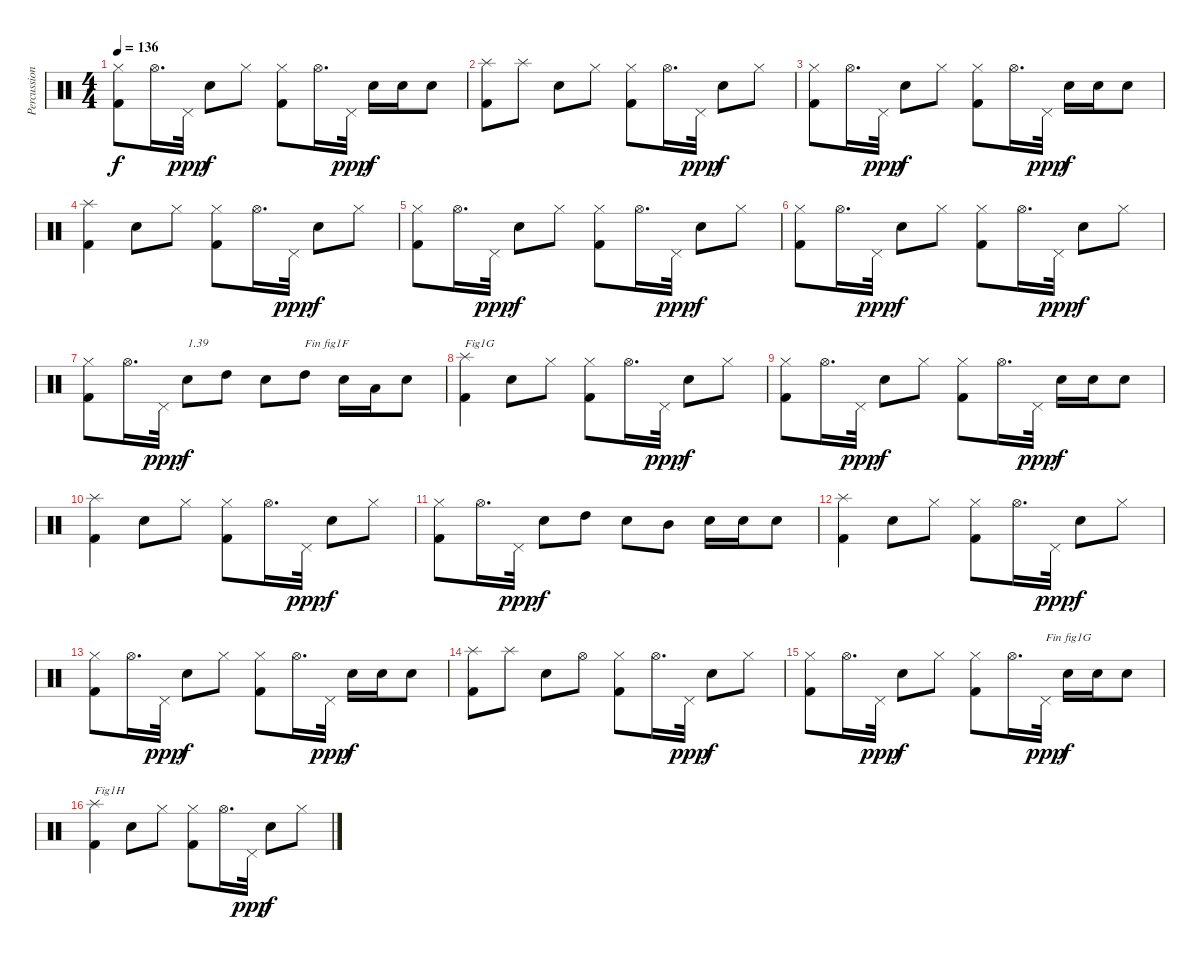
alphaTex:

\track ("Percussions" "Percussion") {instrument percussion}
\staff {score}
\articulation defaults
\ts (4 4)
\tempo 136
\clef neutral
\ks c
("Kick (hit) 2" "Hi-Hat (closed)").8{dy f} "Hi-Hat (open)".16{d} "Pedal Hi-Hat (hit)".32{dy ppp} "Electric Snare (hit)".8{dy f} "Hi-Hat (closed)".8 ("Kick (hit) 2" "Hi-Hat (closed)").8 "Hi-Hat (open)".16{d} "Pedal Hi-Hat (hit)".32{dy ppp} "Electric Snare (hit)".16{dy f} "Electric Snare (hit)".16 "Electric Snare (hit)".8 |
("Kick (hit) 2" "Splash (hit)").8 "Splash (hit)".8 "Electric Snare (hit)".8 "Hi-Hat (closed)".8 ("Kick (hit) 2" "Hi-Hat (closed)").8 "Hi-Hat (open)".16{d} "Pedal Hi-Hat (hit)".32{dy ppp} "Electric Snare (hit)".8{dy f} "Hi-Hat (closed)".8 |
("Kick (hit) 2" "Hi-Hat (closed)").8 "Hi-Hat (open)".16{d} "Pedal Hi-Hat (hit)".32{dy ppp} "Electric Snare (hit)".8{dy f} "Hi-Hat (closed)".8 ("Kick (hit) 2" "Hi-Hat (closed)").8 "Hi-Hat (open)".16{d} "Pedal Hi-Hat (hit)".32{dy ppp} "Electric Snare (hit)".16{dy f} "Electric Snare (hit)".16 "Electric Snare (hit)".8 |
("Kick (hit) 2" "Splash (hit)").4 "Electric Snare (hit)".8 "Hi-Hat (closed)".8 ("Kick (hit) 2" "Hi-Hat (closed)").8 "Hi-Hat (open)".16{d} "Pedal Hi-Hat (hit)".32{dy ppp} "Electric Snare (hit)".8{dy f} "Hi-Hat (closed)".8 |
("Kick (hit) 2" "Hi-Hat (closed)").8 "Hi-Hat (open)".16{d} "Pedal Hi-Hat (hit)".32{dy ppp} "Electric Snare (hit)".8{dy f} "Hi-Hat (closed)".8 ("Kick (hit) 2" "Hi-Hat (closed)").8 "Hi-Hat (open)".16{d} "Pedal Hi-Hat (hit)".32{dy ppp} "Electric Snare (hit)".8{dy f} "Hi-Hat (closed)".8 |
("Kick (hit) 2" "Hi-Hat (closed)").8 "Hi-Hat (open)".16{d} "Pedal Hi-Hat (hit)".32{dy ppp} "Electric Snare (hit)".8{dy f} "Hi-Hat (closed)".8 ("Kick (hit) 2" "Hi-Hat (closed)").8 "Hi-Hat (open)".16{d} "Pedal Hi-Hat (hit)".32{dy ppp} "Electric Snare (hit)".8{dy f} "Hi-Hat (closed)".8 |
("Kick (hit) 2" "Hi-Hat (closed)").8 "Hi-Hat (open)".16{d} "Pedal Hi-Hat (hit)".32{dy ppp} "Electric Snare (hit)".8{txt "1.39" dy f} "High Tom (hit)".8 "Electric Snare (hit)".8 "High Tom (hit)".8{txt "Fin fig1F"} "Electric Snare (hit)".16 "Low Tom (hit)".16 "Electric Snare (hit)".8 |
("Kick (hit) 2" "Splash (hit)").4{txt "Fig1G"} "Electric Snare (hit)".8 "Hi-Hat (closed)".8 ("Kick (hit) 2" "Hi-Hat (closed)").8 "Hi-Hat (open)".16{d} "Pedal Hi-Hat (hit)".32{dy ppp} "Electric Snare (hit)".8{dy f} "Hi-Hat (closed)".8 |
("Kick (hit) 2" "Hi-Hat (closed)").8 "Hi-Hat (open)".16{d} "Pedal Hi-Hat (hit)".32{dy ppp} "Electric Snare (hit)".8{dy f} "Hi-Hat (closed)".8 ("Kick (hit) 2" "Hi-Hat (closed)").8 "Hi-Hat (open)".16{d} "Pedal Hi-Hat (hit)".32{dy ppp} "Electric Snare (hit)".16{dy f} "Electric Snare (hit)".16 "Electric Snare (hit)".8 |
("Kick (hit) 2" "Splash (hit)").4 "Electric Snare (hit)".8 "Hi-Hat (closed)".8 ("Kick (hit) 2" "Hi-Hat (closed)").8 "Hi-Hat (open)".16{d} "Pedal Hi-Hat (hit)".32{dy ppp} "Electric Snare (hit)".8{dy f} "Hi-Hat (closed)".8 |
("Kick (hit) 2" "Hi-Hat (closed)").8 "Hi-Hat (open)".16{d} "Pedal Hi-Hat (hit)".32{dy ppp} "Electric Snare (hit)".8{dy f} "High Tom (hit)".8 "Electric Snare (hit)".8 "Mid Tom (hit)".8 "Electric Snare (hit)".16 "Electric Snare (hit)".16 "Electric Snare (hit)".8 |
("Kick (hit) 2" "Splash (hit)").4 "Electric Snare (hit)".8 "Hi-Hat (closed)".8 ("Kick (hit) 2" "Hi-Hat (closed)").8 "Hi-Hat (open)".16{d} "Pedal Hi-Hat (hit)".32{dy ppp} "Electric Snare (hit)".8{dy f} "Hi-Hat (closed)".8 |
("Kick (hit) 2" "Hi-Hat (closed)").8 "Hi-Hat (open)".16{d} "Pedal Hi-Hat (hit)".32{dy ppp} "Electric Snare (hit)".8{dy f} "Hi-Hat (closed)".8 ("Kick (hit) 2" "Hi-Hat (closed)").8 "Hi-Hat (open)".16{d} "Pedal Hi-Hat (hit)".32{dy ppp} "Electric Snare (hit)".16{dy f} "Electric Snare (hit)".16 "Electric Snare (hit)".8 |
("Kick (hit) 2" "Splash (hit)").8 "Splash (hit)".8 "Electric Snare (hit)".8 "Hi-Hat (open)".8 ("Kick (hit) 2" "Hi-Hat (closed)").8 "Hi-Hat (open)".16{d} "Pedal Hi-Hat (hit)".32{dy ppp} "Electric Snare (hit)".8{dy f} "Hi-Hat (closed)".8 |
("Kick (hit) 2" "Hi-Hat (closed)").8 "Hi-Hat (open)".16{d} "Pedal Hi-Hat (hit)".32{dy ppp} "Electric Snare (hit)".8{dy f} "Hi-Hat (closed)".8 ("Kick (hit) 2" "Hi-Hat (closed)").8 "Hi-Hat (open)".16{d} "Pedal Hi-Hat (hit)".32{txt "Fin fig1G" dy ppp} "Electric Snare (hit)".16{dy f} "Electric Snare (hit)".16 "Electric Snare (hit)".8 |
("Kick (hit) 2" "Splash (hit)").4{txt "Fig1H"} "Electric Snare (hit)".8 "Hi-Hat (closed)".8 ("Kick (hit) 2" "Hi-Hat (closed)").8 "Hi-Hat (open)".16{d} "Pedal Hi-Hat (hit)".32{dy ppp} "Electric Snare (hit)".8{dy f} "Hi-Hat (closed)".8
